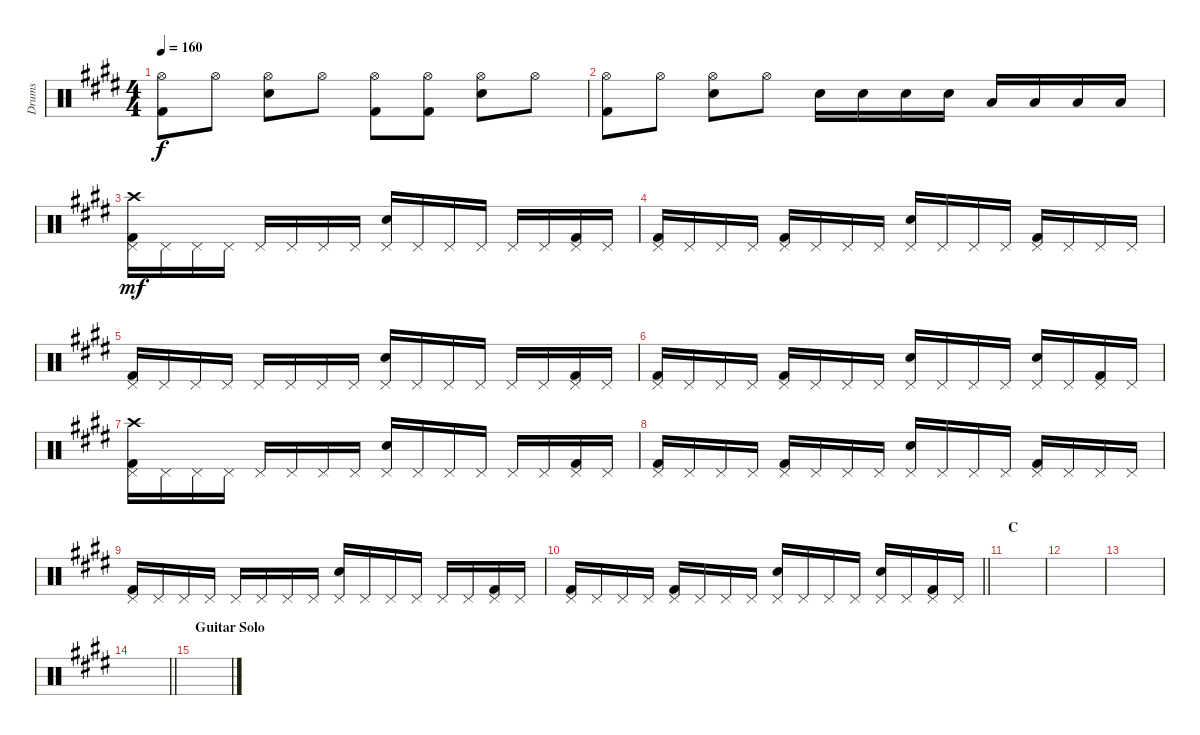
\track ("Drums" "Drums") {instrument percussion}
\staff {score}
\articulation defaults
\ts (4 4)
\tempo 160
\clef neutral
\ks e
("Hi-Hat (open)" "Kick (hit) 2").8{dy f} "Hi-Hat (open)".8 ("Hi-Hat (open)" "Snare (hit) 2").8 "Hi-Hat (open)".8 ("Hi-Hat (open)" "Kick (hit) 2").8 ("Hi-Hat (open)" "Kick (hit) 2").8 ("Hi-Hat (open)" "Snare (hit) 2").8 "Hi-Hat (open)".8 |
("Hi-Hat (open)" "Kick (hit) 2").8 "Hi-Hat (open)".8 ("Hi-Hat (open)" "Snare (hit) 2").8 "Hi-Hat (open)".8 "Snare (hit) 2".16 "Snare (hit) 2".16 "Snare (hit) 2".16 "Snare (hit) 2".16 "Low Tom (hit)".16 "Low Tom (hit)".16 "Low Tom (hit)".16 "Low Tom (hit)".16 |
("Pedal Hi-Hat (hit)" "Crash high (hit)" "Kick (hit) 2").16{dy mf} "Pedal Hi-Hat (hit)".16 "Pedal Hi-Hat (hit)".16 "Pedal Hi-Hat (hit)".16 "Pedal Hi-Hat (hit)".16 "Pedal Hi-Hat (hit)".16 "Pedal Hi-Hat (hit)".16 "Pedal Hi-Hat (hit)".16 ("Pedal Hi-Hat (hit)" "Snare (hit) 2").16 "Pedal Hi-Hat (hit)".16 "Pedal Hi-Hat (hit)".16 "Pedal Hi-Hat (hit)".16 "Pedal Hi-Hat (hit)".16 "Pedal Hi-Hat (hit)".16 ("Pedal Hi-Hat (hit)" "Kick (hit) 2").16 "Pedal Hi-Hat (hit)".16 |
("Pedal Hi-Hat (hit)" "Kick (hit) 2").16 "Pedal Hi-Hat (hit)".16 "Pedal Hi-Hat (hit)".16 "Pedal Hi-Hat (hit)".16 ("Pedal Hi-Hat (hit)" "Kick (hit) 2").16 "Pedal Hi-Hat (hit)".16 "Pedal Hi-Hat (hit)".16 "Pedal Hi-Hat (hit)".16 ("Pedal Hi-Hat (hit)" "Snare (hit) 2").16 "Pedal Hi-Hat (hit)".16 "Pedal Hi-Hat (hit)".16 "Pedal Hi-Hat (hit)".16 ("Pedal Hi-Hat (hit)" "Kick (hit) 2").16 "Pedal Hi-Hat (hit)".16 "Pedal Hi-Hat (hit)".16 "Pedal Hi-Hat (hit)".16 |
("Pedal Hi-Hat (hit)" "Kick (hit) 2").16 "Pedal Hi-Hat (hit)".16 "Pedal Hi-Hat (hit)".16 "Pedal Hi-Hat (hit)".16 "Pedal Hi-Hat (hit)".16 "Pedal Hi-Hat (hit)".16 "Pedal Hi-Hat (hit)".16 "Pedal Hi-Hat (hit)".16 ("Pedal Hi-Hat (hit)" "Snare (hit) 2").16 "Pedal Hi-Hat (hit)".16 "Pedal Hi-Hat (hit)".16 "Pedal Hi-Hat (hit)".16 "Pedal Hi-Hat (hit)".16 "Pedal Hi-Hat (hit)".16 ("Pedal Hi-Hat (hit)" "Kick (hit) 2").16 "Pedal Hi-Hat (hit)".16 |
("Pedal Hi-Hat (hit)" "Kick (hit) 2").16 "Pedal Hi-Hat (hit)".16 "Pedal Hi-Hat (hit)".16 "Pedal Hi-Hat (hit)".16 ("Pedal Hi-Hat (hit)" "Kick (hit) 2").16 "Pedal Hi-Hat (hit)".16 "Pedal Hi-Hat (hit)".16 "Pedal Hi-Hat (hit)".16 ("Pedal Hi-Hat (hit)" "Snare (hit) 2").16 "Pedal Hi-Hat (hit)".16 "Pedal Hi-Hat (hit)".16 "Pedal Hi-Hat (hit)".16 ("Pedal Hi-Hat (hit)" "Snare (hit) 2").16 "Pedal Hi-Hat (hit)".16 ("Pedal Hi-Hat (hit)" "Kick (hit) 2").16 "Pedal Hi-Hat (hit)".16 |
("Pedal Hi-Hat (hit)" "Crash high (hit)" "Kick (hit) 2").16 "Pedal Hi-Hat (hit)".16 "Pedal Hi-Hat (hit)".16 "Pedal Hi-Hat (hit)".16 "Pedal Hi-Hat (hit)".16 "Pedal Hi-Hat (hit)".16 "Pedal Hi-Hat (hit)".16 "Pedal Hi-Hat (hit)".16 ("Pedal Hi-Hat (hit)" "Snare (hit) 2").16 "Pedal Hi-Hat (hit)".16 "Pedal Hi-Hat (hit)".16 "Pedal Hi-Hat (hit)".16 "Pedal Hi-Hat (hit)".16 "Pedal Hi-Hat (hit)".16 ("Pedal Hi-Hat (hit)" "Kick (hit) 2").16 "Pedal Hi-Hat (hit)".16 |
("Pedal Hi-Hat (hit)" "Kick (hit) 2").16 "Pedal Hi-Hat (hit)".16 "Pedal Hi-Hat (hit)".16 "Pedal Hi-Hat (hit)".16 ("Pedal Hi-Hat (hit)" "Kick (hit) 2").16 "Pedal Hi-Hat (hit)".16 "Pedal Hi-Hat (hit)".16 "Pedal Hi-Hat (hit)".16 ("Pedal Hi-Hat (hit)" "Snare (hit) 2").16 "Pedal Hi-Hat (hit)".16 "Pedal Hi-Hat (hit)".16 "Pedal Hi-Hat (hit)".16 ("Pedal Hi-Hat (hit)" "Kick (hit) 2").16 "Pedal Hi-Hat (hit)".16 "Pedal Hi-Hat (hit)".16 "Pedal Hi-Hat (hit)".16 |
("Pedal Hi-Hat (hit)" "Kick (hit) 2").16 "Pedal Hi-Hat (hit)".16 "Pedal Hi-Hat (hit)".16 "Pedal Hi-Hat (hit)".16 "Pedal Hi-Hat (hit)".16 "Pedal Hi-Hat (hit)".16 "Pedal Hi-Hat (hit)".16 "Pedal Hi-Hat (hit)".16 ("Pedal Hi-Hat (hit)" "Snare (hit) 2").16 "Pedal Hi-Hat (hit)".16 "Pedal Hi-Hat (hit)".16 "Pedal Hi-Hat (hit)".16 "Pedal Hi-Hat (hit)".16 "Pedal Hi-Hat (hit)".16 ("Pedal Hi-Hat (hit)" "Kick (hit) 2").16 "Pedal Hi-Hat (hit)".16 |
\barLineRight lightlight
("Pedal Hi-Hat (hit)" "Kick (hit) 2").16 "Pedal Hi-Hat (hit)".16 "Pedal Hi-Hat (hit)".16 "Pedal Hi-Hat (hit)".16 ("Pedal Hi-Hat (hit)" "Kick (hit) 2").16 "Pedal Hi-Hat (hit)".16 "Pedal Hi-Hat (hit)".16 "Pedal Hi-Hat (hit)".16 ("Pedal Hi-Hat (hit)" "Snare (hit) 2").16 "Pedal Hi-Hat (hit)".16 "Pedal Hi-Hat (hit)".16 "Pedal Hi-Hat (hit)".16 ("Pedal Hi-Hat (hit)" "Snare (hit) 2").16 "Pedal Hi-Hat (hit)".16 ("Pedal Hi-Hat (hit)" "Kick (hit) 2").16 "Pedal Hi-Hat (hit)".16 |
\section ("" "C")
|
|
|
\barLineRight lightlight
|
\section ("" "Guitar Solo")
